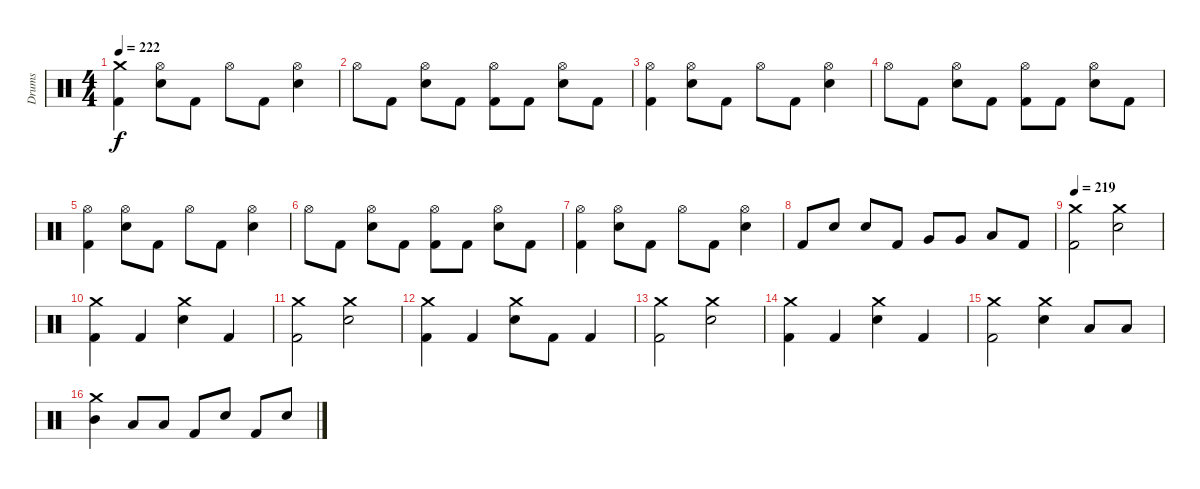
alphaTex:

\track ("Drums" "Drums") {instrument percussion}
\staff {score}
\articulation defaults
\ts (4 4)
\tempo 222
\clef neutral
\ks c
("Kick (hit) 2" "Crash medium (hit)").4{dy f} ("Snare (hit) 2" "Hi-Hat (open)").8 "Kick (hit) 2".8 "Hi-Hat (open)".8 "Kick (hit) 2".8 ("Snare (hit) 2" "Hi-Hat (open)").4 |
"Hi-Hat (open)".8 "Kick (hit) 2".8 ("Snare (hit) 2" "Hi-Hat (open)").8 "Kick (hit) 2".8 ("Kick (hit) 2" "Hi-Hat (open)").8 "Kick (hit) 2".8 ("Snare (hit) 2" "Hi-Hat (open)").8 "Kick (hit) 2".8 |
("Kick (hit) 2" "Hi-Hat (open)").4 ("Snare (hit) 2" "Hi-Hat (open)").8 "Kick (hit) 2".8 "Hi-Hat (open)".8 "Kick (hit) 2".8 ("Snare (hit) 2" "Hi-Hat (open)").4 |
"Hi-Hat (open)".8 "Kick (hit) 2".8 ("Snare (hit) 2" "Hi-Hat (open)").8 "Kick (hit) 2".8 ("Kick (hit) 2" "Hi-Hat (open)").8 "Kick (hit) 2".8 ("Snare (hit) 2" "Hi-Hat (open)").8 "Kick (hit) 2".8 |
("Kick (hit) 2" "Hi-Hat (open)").4 ("Snare (hit) 2" "Hi-Hat (open)").8 "Kick (hit) 2".8 "Hi-Hat (open)".8 "Kick (hit) 2".8 ("Snare (hit) 2" "Hi-Hat (open)").4 |
"Hi-Hat (open)".8 "Kick (hit) 2".8 ("Snare (hit) 2" "Hi-Hat (open)").8 "Kick (hit) 2".8 ("Kick (hit) 2" "Hi-Hat (open)").8 "Kick (hit) 2".8 ("Snare (hit) 2" "Hi-Hat (open)").8 "Kick (hit) 2".8 |
("Kick (hit) 2" "Hi-Hat (open)").4 ("Snare (hit) 2" "Hi-Hat (open)").8 "Kick (hit) 2".8 "Hi-Hat (open)".8 "Kick (hit) 2".8 ("Snare (hit) 2" "Hi-Hat (open)").4 |
"Kick (hit) 2".8 "Snare (hit) 2".8 "Snare (hit) 2".8 "Kick (hit) 2".8 "Very Low Tom (hit)".8 "Very Low Tom (hit)".8 "Low Tom (hit)".8 "Kick (hit) 2".8 |
\tempo 219
("Kick (hit) 2" "Crash medium (hit)").2 ("Snare (hit) 2" "Crash medium (hit)").2 |
("Kick (hit) 2" "Crash medium (hit)").4 "Kick (hit) 2".4 ("Snare (hit) 2" "Crash medium (hit)").4 "Kick (hit) 2".4 |
("Kick (hit) 2" "Crash medium (hit)").2 ("Snare (hit) 2" "Crash medium (hit)").2 |
("Kick (hit) 2" "Crash medium (hit)").4 "Kick (hit) 2".4 ("Snare (hit) 2" "Crash medium (hit)").8 "Kick (hit) 2".8 "Kick (hit) 2".4 |
("Kick (hit) 2" "Crash medium (hit)").2 ("Snare (hit) 2" "Crash medium (hit)").2 |
("Kick (hit) 2" "Crash medium (hit)").4 "Kick (hit) 2".4 ("Snare (hit) 2" "Crash medium (hit)").4 "Kick (hit) 2".4 |
("Kick (hit) 2" "Crash medium (hit)").2 ("Snare (hit) 2" "Crash medium (hit)").4 "Low Tom (hit)".8 "Low Tom (hit)".8 |
("Mid Tom (hit)" "Crash medium (hit)").4 "Low Tom (hit)".8 "Low Tom (hit)".8 "Kick (hit) 2".8 "Snare (hit) 2".8 "Kick (hit) 2".8 "Snare (hit) 2".8
